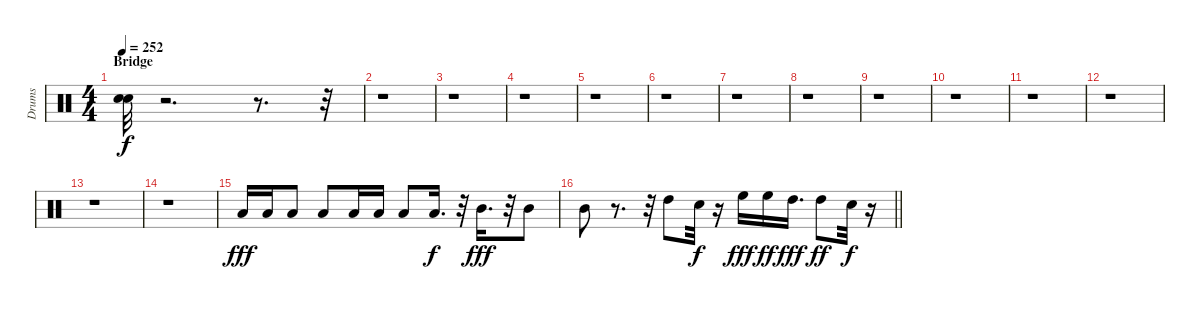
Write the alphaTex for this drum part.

\track ("Drums" "Drums") {instrument percussion}
\staff {score}
\articulation defaults
\ts (4 4)
\section ("" "Bridge")
\tempo 252
\clef neutral
\ks c
("Snare (hit)" "Snare (hit)").32{dy f} r.2{d} r.8{d} r.32 |
r.1 |
r.1 |
r.1 |
r.1 |
r.1 |
r.1 |
r.1 |
r.1 |
r.1 |
r.1 |
r.1 |
r.1 |
r.1 |
"Low Floor Tom (hit)".16{dy fff} "Low Tom (hit)".16 "Low Tom (hit)".8 "Low Tom (hit)".8 "Low Floor Tom (hit)".16 "Low Tom (hit)".16 "Low Tom (hit)".8 "Low Tom (hit)".16{d dy f} r.32 "Mid Tom (hit)".16{d dy fff} r.32 "Mid Tom (hit)".8 |
\barLineRight lightlight "Mid Tom (hit)".8
r.8{d} r.32 "High Tom (hit)".8 "Snare (hit)".32{dy f} r.16 "High Floor Tom (hit)".16{dy fff} "High Floor Tom (hit)".16{dy ff} "High Tom (hit)".16{d dy fff} "High Tom (hit)".8{dy ff} "Snare (hit)".32{dy f} r.16
